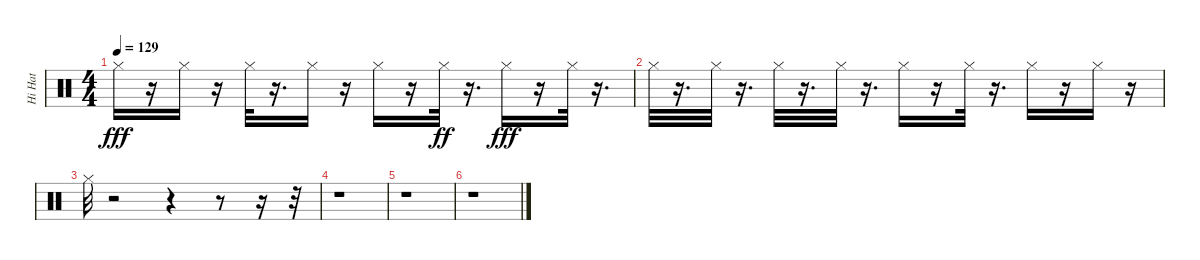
\track ("Hi Hat" "Hi Hat") {instrument percussion}
\staff {score}
\articulation defaults
\ts (4 4)
\tempo 129
\clef neutral
\ks c "Hi-Hat (closed)".16{dy fff}
r.16 "Hi-Hat (closed)".16 r.16 "Hi-Hat (closed)".32 r.16{d} "Hi-Hat (closed)".16 r.16 "Hi-Hat (closed)".16 r.16 "Hi-Hat (closed)".32{dy ff} r.16{d} "Hi-Hat (closed)".16{dy fff} r.16 "Hi-Hat (closed)".32 r.16{d} |
"Hi-Hat (closed)".32 r.16{d} "Hi-Hat (closed)".32 r.16{d} "Hi-Hat (closed)".32 r.16{d} "Hi-Hat (closed)".32 r.16{d} "Hi-Hat (closed)".16 r.16 "Hi-Hat (closed)".32 r.16{d} "Hi-Hat (closed)".16 r.16 "Hi-Hat (closed)".16 r.16 |
"Hi-Hat (closed)".32 r.2 r.4 r.8 r.16 r.32 |
r.1 |
r.1 |
r.1
